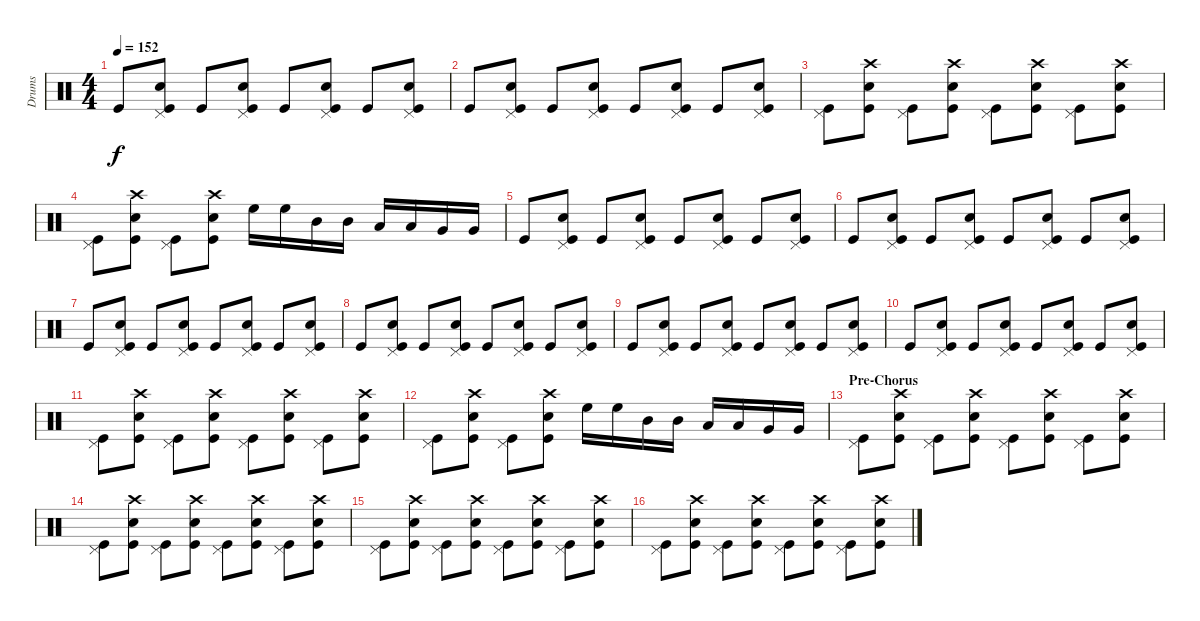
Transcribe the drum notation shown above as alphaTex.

\track ("Drums" "Drums") {instrument percussion}
\staff {score}
\articulation defaults
\ts (4 4)
\tempo 152
\clef neutral
\ks c "Kick (hit)".8{dy f}
("Pedal Hi-Hat (hit)" "Electric Snare (hit)" "Kick (hit)").8 "Kick (hit)".8 ("Pedal Hi-Hat (hit)" "Electric Snare (hit)" "Kick (hit)").8 "Kick (hit)".8 ("Pedal Hi-Hat (hit)" "Electric Snare (hit)" "Kick (hit)").8 "Kick (hit)".8 ("Pedal Hi-Hat (hit)" "Electric Snare (hit)" "Kick (hit)").8 |
"Kick (hit)".8 ("Pedal Hi-Hat (hit)" "Electric Snare (hit)" "Kick (hit)").8 "Kick (hit)".8 ("Pedal Hi-Hat (hit)" "Electric Snare (hit)" "Kick (hit)").8 "Kick (hit)".8 ("Pedal Hi-Hat (hit)" "Electric Snare (hit)" "Kick (hit)").8 "Kick (hit)".8 ("Pedal Hi-Hat (hit)" "Electric Snare (hit)" "Kick (hit)").8 |
("Pedal Hi-Hat (hit)" "Kick (hit)").8 ("Crash high (hit)" "Electric Snare (hit)" "Kick (hit)").8 ("Pedal Hi-Hat (hit)" "Kick (hit)").8 ("Crash high (hit)" "Electric Snare (hit)" "Kick (hit)").8 ("Pedal Hi-Hat (hit)" "Kick (hit)").8 ("Crash high (hit)" "Electric Snare (hit)" "Kick (hit)").8 ("Pedal Hi-Hat (hit)" "Kick (hit)").8 ("Crash high (hit)" "Electric Snare (hit)" "Kick (hit)").8 |
("Pedal Hi-Hat (hit)" "Kick (hit)").8 ("Crash high (hit)" "Electric Snare (hit)" "Kick (hit)").8 ("Pedal Hi-Hat (hit)" "Kick (hit)").8 ("Crash high (hit)" "Electric Snare (hit)" "Kick (hit)").8 "High Floor Tom (hit)".16 "High Floor Tom (hit)".16 "Mid Tom (hit)".16 "Mid Tom (hit)".16 "Low Tom (hit)".16 "Low Tom (hit)".16 "Very Low Tom (hit)".16 "Very Low Tom (hit)".16 |
"Kick (hit)".8 ("Pedal Hi-Hat (hit)" "Electric Snare (hit)" "Kick (hit)").8 "Kick (hit)".8 ("Pedal Hi-Hat (hit)" "Electric Snare (hit)" "Kick (hit)").8 "Kick (hit)".8 ("Pedal Hi-Hat (hit)" "Electric Snare (hit)" "Kick (hit)").8 "Kick (hit)".8 ("Pedal Hi-Hat (hit)" "Electric Snare (hit)" "Kick (hit)").8 |
"Kick (hit)".8 ("Pedal Hi-Hat (hit)" "Electric Snare (hit)" "Kick (hit)").8 "Kick (hit)".8 ("Pedal Hi-Hat (hit)" "Electric Snare (hit)" "Kick (hit)").8 "Kick (hit)".8 ("Pedal Hi-Hat (hit)" "Electric Snare (hit)" "Kick (hit)").8 "Kick (hit)".8 ("Pedal Hi-Hat (hit)" "Electric Snare (hit)" "Kick (hit)").8 |
"Kick (hit)".8 ("Pedal Hi-Hat (hit)" "Electric Snare (hit)" "Kick (hit)").8 "Kick (hit)".8 ("Pedal Hi-Hat (hit)" "Electric Snare (hit)" "Kick (hit)").8 "Kick (hit)".8 ("Pedal Hi-Hat (hit)" "Electric Snare (hit)" "Kick (hit)").8 "Kick (hit)".8 ("Pedal Hi-Hat (hit)" "Electric Snare (hit)" "Kick (hit)").8 |
"Kick (hit)".8 ("Pedal Hi-Hat (hit)" "Electric Snare (hit)" "Kick (hit)").8 "Kick (hit)".8 ("Pedal Hi-Hat (hit)" "Electric Snare (hit)" "Kick (hit)").8 "Kick (hit)".8 ("Pedal Hi-Hat (hit)" "Electric Snare (hit)" "Kick (hit)").8 "Kick (hit)".8 ("Pedal Hi-Hat (hit)" "Electric Snare (hit)" "Kick (hit)").8 |
"Kick (hit)".8 ("Pedal Hi-Hat (hit)" "Electric Snare (hit)" "Kick (hit)").8 "Kick (hit)".8 ("Pedal Hi-Hat (hit)" "Electric Snare (hit)" "Kick (hit)").8 "Kick (hit)".8 ("Pedal Hi-Hat (hit)" "Electric Snare (hit)" "Kick (hit)").8 "Kick (hit)".8 ("Pedal Hi-Hat (hit)" "Electric Snare (hit)" "Kick (hit)").8 |
"Kick (hit)".8 ("Pedal Hi-Hat (hit)" "Electric Snare (hit)" "Kick (hit)").8 "Kick (hit)".8 ("Pedal Hi-Hat (hit)" "Electric Snare (hit)" "Kick (hit)").8 "Kick (hit)".8 ("Pedal Hi-Hat (hit)" "Electric Snare (hit)" "Kick (hit)").8 "Kick (hit)".8 ("Pedal Hi-Hat (hit)" "Electric Snare (hit)" "Kick (hit)").8 |
("Pedal Hi-Hat (hit)" "Kick (hit)").8 ("Crash high (hit)" "Electric Snare (hit)" "Kick (hit)").8 ("Pedal Hi-Hat (hit)" "Kick (hit)").8 ("Crash high (hit)" "Electric Snare (hit)" "Kick (hit)").8 ("Pedal Hi-Hat (hit)" "Kick (hit)").8 ("Crash high (hit)" "Electric Snare (hit)" "Kick (hit)").8 ("Pedal Hi-Hat (hit)" "Kick (hit)").8 ("Crash high (hit)" "Electric Snare (hit)" "Kick (hit)").8 |
("Pedal Hi-Hat (hit)" "Kick (hit)").8 ("Crash high (hit)" "Electric Snare (hit)" "Kick (hit)").8 ("Pedal Hi-Hat (hit)" "Kick (hit)").8 ("Crash high (hit)" "Electric Snare (hit)" "Kick (hit)").8 "High Floor Tom (hit)".16 "High Floor Tom (hit)".16 "Mid Tom (hit)".16 "Mid Tom (hit)".16 "Low Tom (hit)".16 "Low Tom (hit)".16 "Very Low Tom (hit)".16 "Very Low Tom (hit)".16 |
\section ("" "Pre-Chorus")
("Pedal Hi-Hat (hit)" "Kick (hit)").8 ("Crash high (hit)" "Electric Snare (hit)" "Kick (hit)").8 ("Pedal Hi-Hat (hit)" "Kick (hit)").8 ("Crash high (hit)" "Electric Snare (hit)" "Kick (hit)").8 ("Pedal Hi-Hat (hit)" "Kick (hit)").8 ("Crash high (hit)" "Electric Snare (hit)" "Kick (hit)").8 ("Pedal Hi-Hat (hit)" "Kick (hit)").8 ("Crash high (hit)" "Electric Snare (hit)" "Kick (hit)").8 |
("Pedal Hi-Hat (hit)" "Kick (hit)").8 ("Crash high (hit)" "Electric Snare (hit)" "Kick (hit)").8 ("Pedal Hi-Hat (hit)" "Kick (hit)").8 ("Crash high (hit)" "Electric Snare (hit)" "Kick (hit)").8 ("Pedal Hi-Hat (hit)" "Kick (hit)").8 ("Crash high (hit)" "Electric Snare (hit)" "Kick (hit)").8 ("Pedal Hi-Hat (hit)" "Kick (hit)").8 ("Crash high (hit)" "Electric Snare (hit)" "Kick (hit)").8 |
("Pedal Hi-Hat (hit)" "Kick (hit)").8 ("Crash high (hit)" "Electric Snare (hit)" "Kick (hit)").8 ("Pedal Hi-Hat (hit)" "Kick (hit)").8 ("Crash high (hit)" "Electric Snare (hit)" "Kick (hit)").8 ("Pedal Hi-Hat (hit)" "Kick (hit)").8 ("Crash high (hit)" "Electric Snare (hit)" "Kick (hit)").8 ("Pedal Hi-Hat (hit)" "Kick (hit)").8 ("Crash high (hit)" "Electric Snare (hit)" "Kick (hit)").8 |
("Pedal Hi-Hat (hit)" "Kick (hit)").8 ("Crash high (hit)" "Electric Snare (hit)" "Kick (hit)").8 ("Pedal Hi-Hat (hit)" "Kick (hit)").8 ("Crash high (hit)" "Electric Snare (hit)" "Kick (hit)").8 ("Pedal Hi-Hat (hit)" "Kick (hit)").8 ("Crash high (hit)" "Electric Snare (hit)" "Kick (hit)").8 ("Pedal Hi-Hat (hit)" "Kick (hit)").8 ("Crash high (hit)" "Electric Snare (hit)" "Kick (hit)").8
